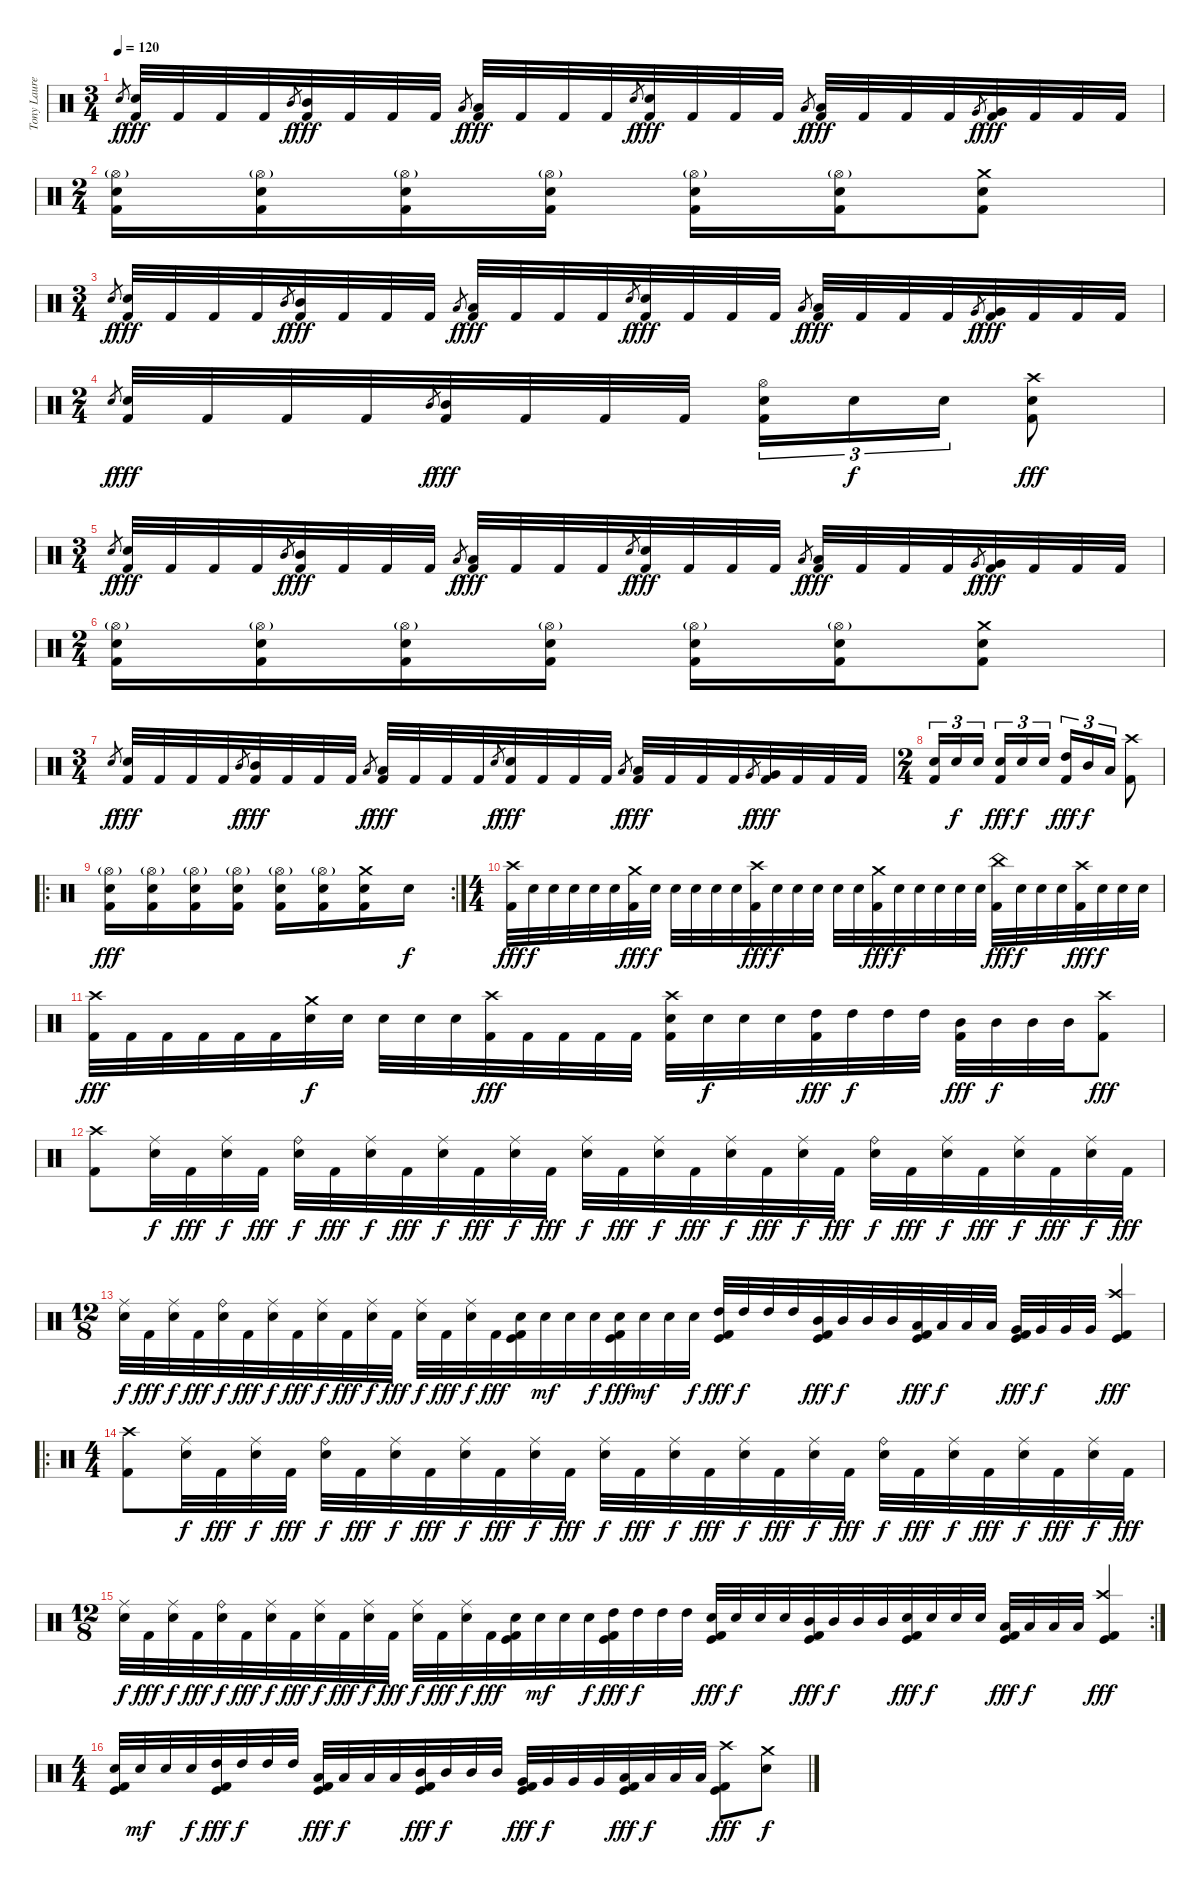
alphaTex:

\track ("Tony Laureano" "Tony Laure") {instrument percussion}
\staff {score}
\articulation defaults
\ts (3 4)
\tempo 120
\clef neutral
\ks c "Snare (hit) 2".8{gr dy f}
("Snare (hit) 2" "Kick (hit) 2").32{dy fff} "Kick (hit) 2".32 "Kick (hit) 2".32 "Kick (hit) 2".32 "Mid Tom (hit)".8{gr dy f} ("Mid Tom (hit)" "Kick (hit) 2").32{dy fff} "Kick (hit) 2".32 "Kick (hit) 2".32 "Kick (hit) 2".32 "Low Tom (hit)".8{gr dy f} ("Low Tom (hit)" "Kick (hit) 2").32{dy fff} "Kick (hit) 2".32 "Kick (hit) 2".32 "Kick (hit) 2".32 "Snare (hit) 2".8{gr dy f} ("Snare (hit) 2" "Kick (hit) 2").32{dy fff} "Kick (hit) 2".32 "Kick (hit) 2".32 "Kick (hit) 2".32 "Low Tom (hit)".8{gr dy f} ("Low Tom (hit)" "Kick (hit) 2").32{dy fff} "Kick (hit) 2".32 "Kick (hit) 2".32 "Kick (hit) 2".32 "Very Low Tom (hit)".8{gr dy f} ("Very Low Tom (hit)" "Kick (hit) 2").32{dy fff} "Kick (hit) 2".32 "Kick (hit) 2".32 "Kick (hit) 2".32 |
\ts (2 4)
("Hi-Hat (open)"{g} "Snare (hit) 2" "Kick (hit) 2").16 ("Hi-Hat (open)"{g} "Snare (hit) 2" "Kick (hit) 2").16 ("Hi-Hat (open)"{g} "Snare (hit) 2" "Kick (hit) 2").16 ("Hi-Hat (open)"{g} "Snare (hit) 2" "Kick (hit) 2").16 ("Hi-Hat (open)"{g} "Snare (hit) 2" "Kick (hit) 2").16 ("Hi-Hat (open)"{g} "Snare (hit) 2" "Kick (hit) 2").16 ("Crash medium (hit)" "Snare (hit) 2" "Kick (hit) 2").8 |
\ts (3 4)
"Snare (hit) 2".8{gr dy f} ("Snare (hit) 2" "Kick (hit) 2").32{dy fff} "Kick (hit) 2".32 "Kick (hit) 2".32 "Kick (hit) 2".32 "Mid Tom (hit)".8{gr dy f} ("Mid Tom (hit)" "Kick (hit) 2").32{dy fff} "Kick (hit) 2".32 "Kick (hit) 2".32 "Kick (hit) 2".32 "Low Tom (hit)".8{gr dy f} ("Low Tom (hit)" "Kick (hit) 2").32{dy fff} "Kick (hit) 2".32 "Kick (hit) 2".32 "Kick (hit) 2".32 "Snare (hit) 2".8{gr dy f} ("Snare (hit) 2" "Kick (hit) 2").32{dy fff} "Kick (hit) 2".32 "Kick (hit) 2".32 "Kick (hit) 2".32 "Low Tom (hit)".8{gr dy f} ("Low Tom (hit)" "Kick (hit) 2").32{dy fff} "Kick (hit) 2".32 "Kick (hit) 2".32 "Kick (hit) 2".32 "Very Low Tom (hit)".8{gr dy f} ("Very Low Tom (hit)" "Kick (hit) 2").32{dy fff} "Kick (hit) 2".32 "Kick (hit) 2".32 "Kick (hit) 2".32 |
\ts (2 4)
"Snare (hit) 2".8{gr dy f} ("Snare (hit) 2" "Kick (hit) 2").32{dy fff} "Kick (hit) 2".32 "Kick (hit) 2".32 "Kick (hit) 2".32 "Mid Tom (hit)".8{gr dy f} ("Mid Tom (hit)" "Kick (hit) 2").32{dy fff} "Kick (hit) 2".32 "Kick (hit) 2".32 "Kick (hit) 2".32 ("Hi-Hat (open)" "Snare (hit) 2" "Kick (hit) 2").16{tu (3 2)} "Snare (hit) 2".16{tu (3 2) dy f} "Snare (hit) 2".16{tu (3 2)} ("Crash high (hit)" "Snare (hit) 2" "Kick (hit) 2").8{dy fff} |
\ts (3 4)
"Snare (hit) 2".8{gr dy f} ("Snare (hit) 2" "Kick (hit) 2").32{dy fff} "Kick (hit) 2".32 "Kick (hit) 2".32 "Kick (hit) 2".32 "Mid Tom (hit)".8{gr dy f} ("Mid Tom (hit)" "Kick (hit) 2").32{dy fff} "Kick (hit) 2".32 "Kick (hit) 2".32 "Kick (hit) 2".32 "Low Tom (hit)".8{gr dy f} ("Low Tom (hit)" "Kick (hit) 2").32{dy fff} "Kick (hit) 2".32 "Kick (hit) 2".32 "Kick (hit) 2".32 "Snare (hit) 2".8{gr dy f} ("Snare (hit) 2" "Kick (hit) 2").32{dy fff} "Kick (hit) 2".32 "Kick (hit) 2".32 "Kick (hit) 2".32 "Low Tom (hit)".8{gr dy f} ("Low Tom (hit)" "Kick (hit) 2").32{dy fff} "Kick (hit) 2".32 "Kick (hit) 2".32 "Kick (hit) 2".32 "Very Low Tom (hit)".8{gr dy f} ("Very Low Tom (hit)" "Kick (hit) 2").32{dy fff} "Kick (hit) 2".32 "Kick (hit) 2".32 "Kick (hit) 2".32 |
\ts (2 4)
("Hi-Hat (open)"{g} "Snare (hit) 2" "Kick (hit) 2").16 ("Hi-Hat (open)"{g} "Snare (hit) 2" "Kick (hit) 2").16 ("Hi-Hat (open)"{g} "Snare (hit) 2" "Kick (hit) 2").16 ("Hi-Hat (open)"{g} "Snare (hit) 2" "Kick (hit) 2").16 ("Hi-Hat (open)"{g} "Snare (hit) 2" "Kick (hit) 2").16 ("Hi-Hat (open)"{g} "Snare (hit) 2" "Kick (hit) 2").16 ("Crash medium (hit)" "Snare (hit) 2" "Kick (hit) 2").8 |
\ts (3 4)
"Snare (hit) 2".8{gr dy f} ("Snare (hit) 2" "Kick (hit) 2").32{dy fff} "Kick (hit) 2".32 "Kick (hit) 2".32 "Kick (hit) 2".32 "Mid Tom (hit)".8{gr dy f} ("Mid Tom (hit)" "Kick (hit) 2").32{dy fff} "Kick (hit) 2".32 "Kick (hit) 2".32 "Kick (hit) 2".32 "Low Tom (hit)".8{gr dy f} ("Low Tom (hit)" "Kick (hit) 2").32{dy fff} "Kick (hit) 2".32 "Kick (hit) 2".32 "Kick (hit) 2".32 "Snare (hit) 2".8{gr dy f} ("Snare (hit) 2" "Kick (hit) 2").32{dy fff} "Kick (hit) 2".32 "Kick (hit) 2".32 "Kick (hit) 2".32 "Low Tom (hit)".8{gr dy f} ("Low Tom (hit)" "Kick (hit) 2").32{dy fff} "Kick (hit) 2".32 "Kick (hit) 2".32 "Kick (hit) 2".32 "Very Low Tom (hit)".8{gr dy f} ("Very Low Tom (hit)" "Kick (hit) 2").32{dy fff} "Kick (hit) 2".32 "Kick (hit) 2".32 "Kick (hit) 2".32 |
\ts (2 4)
("Snare (hit) 2" "Kick (hit) 2").16{tu (3 2)} "Snare (hit) 2".16{tu (3 2) dy f} "Snare (hit) 2".16{tu (3 2)} ("Snare (hit) 2" "Kick (hit) 2").16{tu (3 2) dy fff} "Snare (hit) 2".16{tu (3 2) dy f} "Snare (hit) 2".16{tu (3 2)} ("High Tom (hit)" "Kick (hit) 2").16{tu (3 2) dy fff} "Mid Tom (hit)".16{tu (3 2) dy f} "Low Tom (hit)".16{tu (3 2)} ("Crash high (hit)" "Kick (hit) 2").8 |
\ro
\rc 2
("Hi-Hat (open)"{g} "Snare (hit) 2" "Kick (hit) 2").16{dy fff} ("Hi-Hat (open)"{g} "Snare (hit) 2" "Kick (hit) 2").16 ("Hi-Hat (open)"{g} "Snare (hit) 2" "Kick (hit) 2").16 ("Hi-Hat (open)"{g} "Snare (hit) 2" "Kick (hit) 2").16 ("Hi-Hat (open)"{g} "Snare (hit) 2" "Kick (hit) 2").16 ("Hi-Hat (open)"{g} "Snare (hit) 2" "Kick (hit) 2").16 ("Crash medium (hit)" "Snare (hit) 2" "Kick (hit) 2").16 "Snare (hit) 2".16{dy f} |
\ts (4 4)
("Crash high (hit)" "Kick (hit) 2").32{dy fff} "Snare (hit) 2".32{dy f} "Snare (hit) 2".32 "Snare (hit) 2".32 "Snare (hit) 2".32 "Snare (hit) 2".32 ("Crash medium (hit)" "Kick (hit) 2").32{dy fff} "Snare (hit) 2".32{dy f} "Snare (hit) 2".32 "Snare (hit) 2".32 "Snare (hit) 2".32 "Snare (hit) 2".32 ("Crash high (hit)" "Kick (hit) 2").32{dy fff} "Snare (hit) 2".32{dy f} "Snare (hit) 2".32 "Snare (hit) 2".32 "Snare (hit) 2".32 "Snare (hit) 2".32 ("Crash medium (hit)" "Kick (hit) 2").32{dy fff} "Snare (hit) 2".32{dy f} "Snare (hit) 2".32 "Snare (hit) 2".32 "Snare (hit) 2".32 "Snare (hit) 2".32 ("China (hit)" "Kick (hit) 2").32{dy fff} "Snare (hit) 2".32{dy f} "Snare (hit) 2".32 "Snare (hit) 2".32 ("Crash high (hit)" "Kick (hit) 2").32{dy fff} "Snare (hit) 2".32{dy f} "Snare (hit) 2".32 "Snare (hit) 2".32 |
("Crash high (hit)" "Kick (hit) 2").32{dy fff} "Kick (hit) 2".32 "Kick (hit) 2".32 "Kick (hit) 2".32 "Kick (hit) 2".32 "Kick (hit) 2".32 ("Crash medium (hit)" "Snare (hit) 2").32{dy f} "Snare (hit) 2".32 "Snare (hit) 2".32 "Snare (hit) 2".32 "Snare (hit) 2".32 ("Crash high (hit)" "Kick (hit) 2").32{dy fff} "Kick (hit) 2".32 "Kick (hit) 2".32 "Kick (hit) 2".32 "Kick (hit) 2".32 ("Crash high (hit)" "Snare (hit) 2" "Kick (hit) 2").32 "Snare (hit) 2".32{dy f} "Snare (hit) 2".32 "Snare (hit) 2".32 ("High Tom (hit)" "Kick (hit) 2").32{dy fff} "High Tom (hit)".32{dy f} "High Tom (hit)".32 "High Tom (hit)".32 ("Mid Tom (hit)" "Kick (hit) 2").32{dy fff} "Mid Tom (hit)".32{dy f} "Mid Tom (hit)".32 "Mid Tom (hit)".32 ("Crash high (hit)" "Kick (hit) 2").8{dy fff} |
("Crash high (hit)" "Kick (hit) 2").8 ("Ride (middle)" "Snare (hit) 2").32{dy f} "Kick (hit) 2".32{dy fff} ("Ride (middle)" "Snare (hit) 2").32{dy f} "Kick (hit) 2".32{dy fff} ("Ride (bell)" "Snare (hit) 2").32{dy f} "Kick (hit) 2".32{dy fff} ("Ride (middle)" "Snare (hit) 2").32{dy f} "Kick (hit) 2".32{dy fff} ("Ride (middle)" "Snare (hit) 2").32{dy f} "Kick (hit) 2".32{dy fff} ("Ride (middle)" "Snare (hit) 2").32{dy f} "Kick (hit) 2".32{dy fff} ("Ride (middle)" "Snare (hit) 2").32{dy f} "Kick (hit) 2".32{dy fff} ("Ride (middle)" "Snare (hit) 2").32{dy f} "Kick (hit) 2".32{dy fff} ("Ride (middle)" "Snare (hit) 2").32{dy f} "Kick (hit) 2".32{dy fff} ("Ride (middle)" "Snare (hit) 2").32{dy f} "Kick (hit) 2".32{dy fff} ("Ride (bell)" "Snare (hit) 2").32{dy f} "Kick (hit) 2".32{dy fff} ("Ride (middle)" "Snare (hit) 2").32{dy f} "Kick (hit) 2".32{dy fff} ("Ride (middle)" "Snare (hit) 2").32{dy f} "Kick (hit) 2".32{dy fff} ("Ride (middle)" "Snare (hit) 2").32{dy f} "Kick (hit) 2".32{dy fff} |
\ts (12 8)
("Ride (middle)" "Snare (hit) 2").32{dy f} "Kick (hit) 2".32{dy fff} ("Ride (middle)" "Snare (hit) 2").32{dy f} "Kick (hit) 2".32{dy fff} ("Ride (bell)" "Snare (hit) 2").32{dy f} "Kick (hit) 2".32{dy fff} ("Ride (middle)" "Snare (hit) 2").32{dy f} "Kick (hit) 2".32{dy fff} ("Ride (middle)" "Snare (hit) 2").32{dy f} "Kick (hit) 2".32{dy fff} ("Ride (middle)" "Snare (hit) 2").32{dy f} "Kick (hit) 2".32{dy fff} ("Ride (middle)" "Snare (hit) 2").32{dy f} "Kick (hit) 2".32{dy fff} ("Ride (middle)" "Snare (hit) 2").32{dy f} "Kick (hit) 2".32{dy fff} ("Snare (hit) 2" "Kick (hit)" "Kick (hit) 2").32 "Snare (hit) 2".32{dy mf} "Snare (hit) 2".32 "Snare (hit) 2".32{dy f} ("Snare (hit) 2" "Kick (hit)" "Kick (hit) 2").32{dy fff} "Snare (hit) 2".32{dy mf} "Snare (hit) 2".32 "Snare (hit) 2".32{dy f} ("High Tom (hit)" "Kick (hit)" "Kick (hit) 2").32{dy fff} "High Tom (hit)".32{dy f} "High Tom (hit)".32 "High Tom (hit)".32 ("Mid Tom (hit)" "Kick (hit)" "Kick (hit) 2").32{dy fff} "Mid Tom (hit)".32{dy f} "Mid Tom (hit)".32 "Mid Tom (hit)".32 ("Low Tom (hit)" "Kick (hit)" "Kick (hit) 2").32{dy fff} "Low Tom (hit)".32{dy f} "Low Tom (hit)".32 "Low Tom (hit)".32 ("Very Low Tom (hit)" "Kick (hit)" "Kick (hit) 2").32{dy fff} "Very Low Tom (hit)".32{dy f} "Very Low Tom (hit)".32 "Very Low Tom (hit)".32 ("Crash high (hit)" "Kick (hit)" "Kick (hit) 2").4{dy fff} |
\ro
\ts (4 4)
("Crash high (hit)" "Kick (hit) 2").8 ("Ride (middle)" "Snare (hit) 2").32{dy f} "Kick (hit) 2".32{dy fff} ("Ride (middle)" "Snare (hit) 2").32{dy f} "Kick (hit) 2".32{dy fff} ("Ride (bell)" "Snare (hit) 2").32{dy f} "Kick (hit) 2".32{dy fff} ("Ride (middle)" "Snare (hit) 2").32{dy f} "Kick (hit) 2".32{dy fff} ("Ride (middle)" "Snare (hit) 2").32{dy f} "Kick (hit) 2".32{dy fff} ("Ride (middle)" "Snare (hit) 2").32{dy f} "Kick (hit) 2".32{dy fff} ("Ride (middle)" "Snare (hit) 2").32{dy f} "Kick (hit) 2".32{dy fff} ("Ride (middle)" "Snare (hit) 2").32{dy f} "Kick (hit) 2".32{dy fff} ("Ride (middle)" "Snare (hit) 2").32{dy f} "Kick (hit) 2".32{dy fff} ("Ride (middle)" "Snare (hit) 2").32{dy f} "Kick (hit) 2".32{dy fff} ("Ride (bell)" "Snare (hit) 2").32{dy f} "Kick (hit) 2".32{dy fff} ("Ride (middle)" "Snare (hit) 2").32{dy f} "Kick (hit) 2".32{dy fff} ("Ride (middle)" "Snare (hit) 2").32{dy f} "Kick (hit) 2".32{dy fff} ("Ride (middle)" "Snare (hit) 2").32{dy f} "Kick (hit) 2".32{dy fff} |
\rc 2
\ts (12 8)
("Ride (middle)" "Snare (hit) 2").32{dy f} "Kick (hit) 2".32{dy fff} ("Ride (middle)" "Snare (hit) 2").32{dy f} "Kick (hit) 2".32{dy fff} ("Ride (bell)" "Snare (hit) 2").32{dy f} "Kick (hit) 2".32{dy fff} ("Ride (middle)" "Snare (hit) 2").32{dy f} "Kick (hit) 2".32{dy fff} ("Ride (middle)" "Snare (hit) 2").32{dy f} "Kick (hit) 2".32{dy fff} ("Ride (middle)" "Snare (hit) 2").32{dy f} "Kick (hit) 2".32{dy fff} ("Ride (middle)" "Snare (hit) 2").32{dy f} "Kick (hit) 2".32{dy fff} ("Ride (middle)" "Snare (hit) 2").32{dy f} "Kick (hit) 2".32{dy fff} ("Snare (hit) 2" "Kick (hit)" "Kick (hit) 2").32 "Snare (hit) 2".32{dy mf} "Snare (hit) 2".32 "Snare (hit) 2".32{dy f} ("High Tom (hit)" "Kick (hit)" "Kick (hit) 2").32{dy fff} "High Tom (hit)".32{dy f} "High Tom (hit)".32 "High Tom (hit)".32 ("Snare (hit) 2" "Kick (hit)" "Kick (hit) 2").32{dy fff} "Snare (hit) 2".32{dy f} "Snare (hit) 2".32 "Snare (hit) 2".32 ("Mid Tom (hit)" "Kick (hit)" "Kick (hit) 2").32{dy fff} "Mid Tom (hit)".32{dy f} "Mid Tom (hit)".32 "Mid Tom (hit)".32 ("Snare (hit) 2" "Kick (hit)" "Kick (hit) 2").32{dy fff} "Snare (hit) 2".32{dy f} "Snare (hit) 2".32 "Snare (hit) 2".32 ("Low Tom (hit)" "Kick (hit)" "Kick (hit) 2").32{dy fff} "Low Tom (hit)".32{dy f} "Low Tom (hit)".32 "Low Tom (hit)".32 ("Crash high (hit)" "Kick (hit)" "Kick (hit) 2").4{dy fff} |
\ts (4 4)
("Snare (hit) 2" "Kick (hit)" "Kick (hit) 2").32 "Snare (hit) 2".32{dy mf} "Snare (hit) 2".32 "Snare (hit) 2".32{dy f} ("High Tom (hit)" "Kick (hit)" "Kick (hit) 2").32{dy fff} "High Tom (hit)".32{dy f} "High Tom (hit)".32 "High Tom (hit)".32 ("Low Tom (hit)" "Kick (hit)" "Kick (hit) 2").32{dy fff} "Low Tom (hit)".32{dy f} "Low Tom (hit)".32 "Low Tom (hit)".32 ("Mid Tom (hit)" "Kick (hit)" "Kick (hit) 2").32{dy fff} "Mid Tom (hit)".32{dy f} "Mid Tom (hit)".32 "Mid Tom (hit)".32 ("Very Low Tom (hit)" "Kick (hit)" "Kick (hit) 2").32{dy fff} "Very Low Tom (hit)".32{dy f} "Very Low Tom (hit)".32 "Very Low Tom (hit)".32 ("Low Tom (hit)" "Kick (hit)" "Kick (hit) 2").32{dy fff} "Low Tom (hit)".32{dy f} "Low Tom (hit)".32 "Low Tom (hit)".32 ("Crash high (hit)" "Kick (hit)" "Kick (hit) 2").8{dy fff} ("Crash medium (hit)" "Snare (hit) 2").8{dy f}
